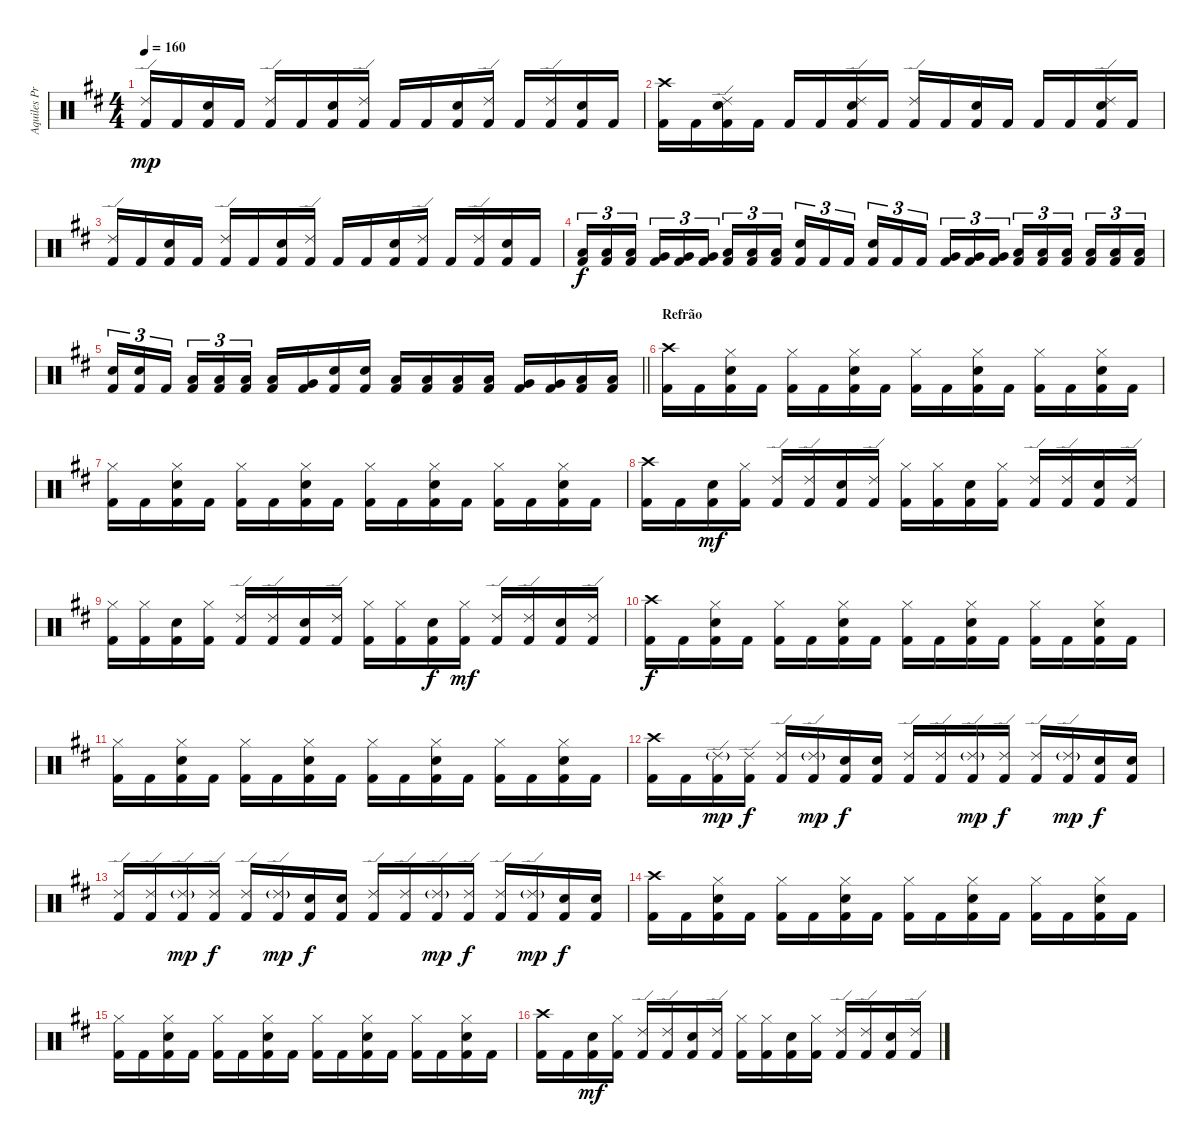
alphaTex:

\track ("Aquiles Priester" "Aquiles Pr") {instrument percussion}
\staff {score}
\articulation defaults
\ts (4 4)
\tempo 160
\clef neutral
\ks d
("Ride (edge) 2" "Kick (hit) 2").16{dy mp} "Kick (hit) 2".16 ("Electric Snare (hit)" "Kick (hit) 2").16 "Kick (hit) 2".16 ("Ride (edge) 2" "Kick (hit) 2").16 "Kick (hit) 2".16 ("Electric Snare (hit)" "Kick (hit) 2").16 ("Ride (edge) 2" "Kick (hit) 2").16 "Kick (hit) 2".16 "Kick (hit) 2".16 ("Electric Snare (hit)" "Kick (hit) 2").16 ("Ride (edge) 2" "Kick (hit) 2").16 "Kick (hit) 2".16 ("Ride (edge) 2" "Kick (hit) 2").16 ("Electric Snare (hit)" "Kick (hit) 2").16 "Kick (hit) 2".16 |
("Crash high (hit)" "Kick (hit) 2").16 "Kick (hit) 2".16 ("Ride (edge) 2" "Electric Snare (hit)" "Kick (hit) 2").16 "Kick (hit) 2".16 "Kick (hit) 2".16 "Kick (hit) 2".16 ("Ride (edge) 2" "Electric Snare (hit)" "Kick (hit) 2").16 "Kick (hit) 2".16 ("Ride (edge) 2" "Kick (hit) 2").16 "Kick (hit) 2".16 ("Electric Snare (hit)" "Kick (hit) 2").16 "Kick (hit) 2".16 "Kick (hit) 2".16 "Kick (hit) 2".16 ("Ride (edge) 2" "Electric Snare (hit)" "Kick (hit) 2").16 "Kick (hit) 2".16 |
("Ride (edge) 2" "Kick (hit) 2").16 "Kick (hit) 2".16 ("Electric Snare (hit)" "Kick (hit) 2").16 "Kick (hit) 2".16 ("Ride (edge) 2" "Kick (hit) 2").16 "Kick (hit) 2".16 ("Electric Snare (hit)" "Kick (hit) 2").16 ("Ride (edge) 2" "Kick (hit) 2").16 "Kick (hit) 2".16 "Kick (hit) 2".16 ("Electric Snare (hit)" "Kick (hit) 2").16 ("Ride (edge) 2" "Kick (hit) 2").16 "Kick (hit) 2".16 ("Ride (edge) 2" "Kick (hit) 2").16 ("Electric Snare (hit)" "Kick (hit) 2").16 "Kick (hit) 2".16 |
("Low Tom (hit)" "Kick (hit) 2").16{tu (3 2) dy f} ("Low Tom (hit)" "Kick (hit) 2").16{tu (3 2)} ("Low Tom (hit)" "Kick (hit) 2").16{tu (3 2) beam splitsecondary} ("Very Low Tom (hit)" "Kick (hit) 2").16{tu (3 2)} ("Very Low Tom (hit)" "Kick (hit) 2").16{tu (3 2)} ("Very Low Tom (hit)" "Kick (hit) 2").16{tu (3 2)} ("Low Floor Tom (hit)" "Kick (hit) 2").16{tu (3 2)} ("Low Floor Tom (hit)" "Kick (hit) 2").16{tu (3 2)} ("Low Floor Tom (hit)" "Kick (hit) 2").16{tu (3 2) beam splitsecondary} ("Electric Snare (hit)" "Kick (hit) 2").16{tu (3 2)} "Kick (hit) 2".16{tu (3 2)} "Kick (hit) 2".16{tu (3 2)} ("Electric Snare (hit)" "Kick (hit) 2").16{tu (3 2)} "Kick (hit) 2".16{tu (3 2)} "Kick (hit) 2".16{tu (3 2) beam splitsecondary} ("Very Low Tom (hit)" "Kick (hit) 2").16{tu (3 2)} ("Very Low Tom (hit)" "Kick (hit) 2").16{tu (3 2)} ("Very Low Tom (hit)" "Kick (hit) 2").16{tu (3 2)} ("Low Tom (hit)" "Kick (hit) 2").16{tu (3 2)} ("Low Tom (hit)" "Kick (hit) 2").16{tu (3 2)} ("Low Tom (hit)" "Kick (hit) 2").16{tu (3 2) beam splitsecondary} ("Low Floor Tom (hit)" "Kick (hit) 2").16{tu (3 2)} ("Low Floor Tom (hit)" "Kick (hit) 2").16{tu (3 2)} ("Low Floor Tom (hit)" "Kick (hit) 2").16{tu (3 2)} |
\barLineRight lightlight
("Electric Snare (hit)" "Kick (hit) 2").16{tu (3 2)} ("Electric Snare (hit)" "Kick (hit) 2").16{tu (3 2)} "Kick (hit) 2".16{tu (3 2) beam splitsecondary} ("Low Tom (hit)" "Kick (hit) 2").16{tu (3 2)} ("Low Tom (hit)" "Kick (hit) 2").16{tu (3 2)} ("Low Tom (hit)" "Kick (hit) 2").16{tu (3 2)} ("Low Tom (hit)" "Kick (hit) 2").16 ("Very Low Tom (hit)" "Kick (hit) 2").16 ("Electric Snare (hit)" "Kick (hit) 2").16 ("Electric Snare (hit)" "Kick (hit) 2").16 ("Low Tom (hit)" "Kick (hit) 2").16 ("Low Tom (hit)" "Kick (hit) 2").16 ("Low Tom (hit)" "Kick (hit) 2").16 ("Low Tom (hit)" "Kick (hit) 2").16 ("Very Low Tom (hit)" "Kick (hit) 2").16 ("Very Low Tom (hit)" "Kick (hit) 2").16 ("Low Floor Tom (hit)" "Kick (hit) 2").16 ("Low Floor Tom (hit)" "Kick (hit) 2").16 |
\section ("" "Refrão")
("Crash high (hit)" "Kick (hit) 2").16 "Kick (hit) 2".16 ("Hi-Hat (closed)" "Electric Snare (hit)" "Kick (hit) 2").16 "Kick (hit) 2".16 ("Hi-Hat (closed)" "Kick (hit) 2").16 "Kick (hit) 2".16 ("Hi-Hat (closed)" "Electric Snare (hit)" "Kick (hit) 2").16 "Kick (hit) 2".16 ("Hi-Hat (closed)" "Kick (hit) 2").16 "Kick (hit) 2".16 ("Hi-Hat (closed)" "Electric Snare (hit)" "Kick (hit) 2").16 "Kick (hit) 2".16 ("Hi-Hat (closed)" "Kick (hit) 2").16 "Kick (hit) 2".16 ("Hi-Hat (closed)" "Electric Snare (hit)" "Kick (hit) 2").16 "Kick (hit) 2".16 |
("Hi-Hat (closed)" "Kick (hit) 2").16 "Kick (hit) 2".16 ("Hi-Hat (closed)" "Electric Snare (hit)" "Kick (hit) 2").16 "Kick (hit) 2".16 ("Hi-Hat (closed)" "Kick (hit) 2").16 "Kick (hit) 2".16 ("Hi-Hat (closed)" "Electric Snare (hit)" "Kick (hit) 2").16 "Kick (hit) 2".16 ("Hi-Hat (closed)" "Kick (hit) 2").16 "Kick (hit) 2".16 ("Hi-Hat (closed)" "Electric Snare (hit)" "Kick (hit) 2").16 "Kick (hit) 2".16 ("Hi-Hat (closed)" "Kick (hit) 2").16 "Kick (hit) 2".16 ("Hi-Hat (closed)" "Electric Snare (hit)" "Kick (hit) 2").16 "Kick (hit) 2".16 |
("Crash high (hit)" "Kick (hit) 2").16 "Kick (hit) 2".16 ("Electric Snare (hit)" "Kick (hit) 2").16{dy mf} ("Hi-Hat (closed)" "Kick (hit) 2").16 ("Ride (edge) 2" "Kick (hit) 2").16 ("Ride (edge) 2" "Kick (hit) 2").16 ("Electric Snare (hit)" "Kick (hit) 2").16 ("Ride (edge) 2" "Kick (hit) 2").16 ("Hi-Hat (closed)" "Kick (hit) 2").16 ("Hi-Hat (closed)" "Kick (hit) 2").16 ("Electric Snare (hit)" "Kick (hit) 2").16 ("Hi-Hat (closed)" "Kick (hit) 2").16 ("Ride (edge) 2" "Kick (hit) 2").16 ("Ride (edge) 2" "Kick (hit) 2").16 ("Electric Snare (hit)" "Kick (hit) 2").16 ("Ride (edge) 2" "Kick (hit) 2").16 |
("Hi-Hat (closed)" "Kick (hit) 2").16 ("Hi-Hat (closed)" "Kick (hit) 2").16 ("Electric Snare (hit)" "Kick (hit) 2").16 ("Hi-Hat (closed)" "Kick (hit) 2").16 ("Ride (edge) 2" "Kick (hit) 2").16 ("Ride (edge) 2" "Kick (hit) 2").16 ("Electric Snare (hit)" "Kick (hit) 2").16 ("Ride (edge) 2" "Kick (hit) 2").16 ("Hi-Hat (closed)" "Kick (hit) 2").16 ("Hi-Hat (closed)" "Kick (hit) 2").16 ("Electric Snare (hit)" "Kick (hit) 2").16{dy f} ("Hi-Hat (closed)" "Kick (hit) 2").16{dy mf} ("Ride (edge) 2" "Kick (hit) 2").16 ("Ride (edge) 2" "Kick (hit) 2").16 ("Electric Snare (hit)" "Kick (hit) 2").16 ("Ride (edge) 2" "Kick (hit) 2").16 |
("Crash high (hit)" "Kick (hit) 2").16{dy f} "Kick (hit) 2".16 ("Hi-Hat (closed)" "Electric Snare (hit)" "Kick (hit) 2").16 "Kick (hit) 2".16 ("Hi-Hat (closed)" "Kick (hit) 2").16 "Kick (hit) 2".16 ("Hi-Hat (closed)" "Electric Snare (hit)" "Kick (hit) 2").16 "Kick (hit) 2".16 ("Hi-Hat (closed)" "Kick (hit) 2").16 "Kick (hit) 2".16 ("Hi-Hat (closed)" "Electric Snare (hit)" "Kick (hit) 2").16 "Kick (hit) 2".16 ("Hi-Hat (closed)" "Kick (hit) 2").16 "Kick (hit) 2".16 ("Hi-Hat (closed)" "Electric Snare (hit)" "Kick (hit) 2").16 "Kick (hit) 2".16 |
("Hi-Hat (closed)" "Kick (hit) 2").16 "Kick (hit) 2".16 ("Hi-Hat (closed)" "Electric Snare (hit)" "Kick (hit) 2").16 "Kick (hit) 2".16 ("Hi-Hat (closed)" "Kick (hit) 2").16 "Kick (hit) 2".16 ("Hi-Hat (closed)" "Electric Snare (hit)" "Kick (hit) 2").16 "Kick (hit) 2".16 ("Hi-Hat (closed)" "Kick (hit) 2").16 "Kick (hit) 2".16 ("Hi-Hat (closed)" "Electric Snare (hit)" "Kick (hit) 2").16 "Kick (hit) 2".16 ("Hi-Hat (closed)" "Kick (hit) 2").16 "Kick (hit) 2".16 ("Hi-Hat (closed)" "Electric Snare (hit)" "Kick (hit) 2").16 "Kick (hit) 2".16 |
("Crash high (hit)" "Kick (hit) 2").16 "Kick (hit) 2".16 ("Ride (edge) 2"{g} "Kick (hit) 2").16{dy mp} ("Ride (edge) 2" "Kick (hit) 2").16{dy f} ("Ride (edge) 2" "Kick (hit) 2").16 ("Ride (edge) 2"{g} "Kick (hit) 2").16{dy mp} ("Electric Snare (hit)" "Kick (hit) 2").16{dy f} ("Electric Snare (hit)" "Kick (hit) 2").16 ("Ride (edge) 2" "Kick (hit) 2").16 ("Ride (edge) 2" "Kick (hit) 2").16 ("Ride (edge) 2"{g} "Kick (hit) 2").16{dy mp} ("Ride (edge) 2" "Kick (hit) 2").16{dy f} ("Ride (edge) 2" "Kick (hit) 2").16 ("Ride (edge) 2"{g} "Kick (hit) 2").16{dy mp} ("Electric Snare (hit)" "Kick (hit) 2").16{dy f} ("Electric Snare (hit)" "Kick (hit) 2").16 |
("Ride (edge) 2" "Kick (hit) 2").16 ("Ride (edge) 2" "Kick (hit) 2").16 ("Ride (edge) 2"{g} "Kick (hit) 2").16{dy mp} ("Ride (edge) 2" "Kick (hit) 2").16{dy f} ("Ride (edge) 2" "Kick (hit) 2").16 ("Ride (edge) 2"{g} "Kick (hit) 2").16{dy mp} ("Electric Snare (hit)" "Kick (hit) 2").16{dy f} ("Electric Snare (hit)" "Kick (hit) 2").16 ("Ride (edge) 2" "Kick (hit) 2").16 ("Ride (edge) 2" "Kick (hit) 2").16 ("Ride (edge) 2"{g} "Kick (hit) 2").16{dy mp} ("Ride (edge) 2" "Kick (hit) 2").16{dy f} ("Ride (edge) 2" "Kick (hit) 2").16 ("Ride (edge) 2"{g} "Kick (hit) 2").16{dy mp} ("Electric Snare (hit)" "Kick (hit) 2").16{dy f} ("Electric Snare (hit)" "Kick (hit) 2").16 |
("Crash high (hit)" "Kick (hit) 2").16 "Kick (hit) 2".16 ("Hi-Hat (closed)" "Electric Snare (hit)" "Kick (hit) 2").16 "Kick (hit) 2".16 ("Hi-Hat (closed)" "Kick (hit) 2").16 "Kick (hit) 2".16 ("Hi-Hat (closed)" "Electric Snare (hit)" "Kick (hit) 2").16 "Kick (hit) 2".16 ("Hi-Hat (closed)" "Kick (hit) 2").16 "Kick (hit) 2".16 ("Hi-Hat (closed)" "Electric Snare (hit)" "Kick (hit) 2").16 "Kick (hit) 2".16 ("Hi-Hat (closed)" "Kick (hit) 2").16 "Kick (hit) 2".16 ("Hi-Hat (closed)" "Electric Snare (hit)" "Kick (hit) 2").16 "Kick (hit) 2".16 |
("Hi-Hat (closed)" "Kick (hit) 2").16 "Kick (hit) 2".16 ("Hi-Hat (closed)" "Electric Snare (hit)" "Kick (hit) 2").16 "Kick (hit) 2".16 ("Hi-Hat (closed)" "Kick (hit) 2").16 "Kick (hit) 2".16 ("Hi-Hat (closed)" "Electric Snare (hit)" "Kick (hit) 2").16 "Kick (hit) 2".16 ("Hi-Hat (closed)" "Kick (hit) 2").16 "Kick (hit) 2".16 ("Hi-Hat (closed)" "Electric Snare (hit)" "Kick (hit) 2").16 "Kick (hit) 2".16 ("Hi-Hat (closed)" "Kick (hit) 2").16 "Kick (hit) 2".16 ("Hi-Hat (closed)" "Electric Snare (hit)" "Kick (hit) 2").16 "Kick (hit) 2".16 |
("Crash high (hit)" "Kick (hit) 2").16 "Kick (hit) 2".16 ("Electric Snare (hit)" "Kick (hit) 2").16{dy mf} ("Hi-Hat (closed)" "Kick (hit) 2").16 ("Ride (edge) 2" "Kick (hit) 2").16 ("Ride (edge) 2" "Kick (hit) 2").16 ("Electric Snare (hit)" "Kick (hit) 2").16 ("Ride (edge) 2" "Kick (hit) 2").16 ("Hi-Hat (closed)" "Kick (hit) 2").16 ("Hi-Hat (closed)" "Kick (hit) 2").16 ("Electric Snare (hit)" "Kick (hit) 2").16 ("Hi-Hat (closed)" "Kick (hit) 2").16 ("Ride (edge) 2" "Kick (hit) 2").16 ("Ride (edge) 2" "Kick (hit) 2").16 ("Electric Snare (hit)" "Kick (hit) 2").16 ("Ride (edge) 2" "Kick (hit) 2").16
